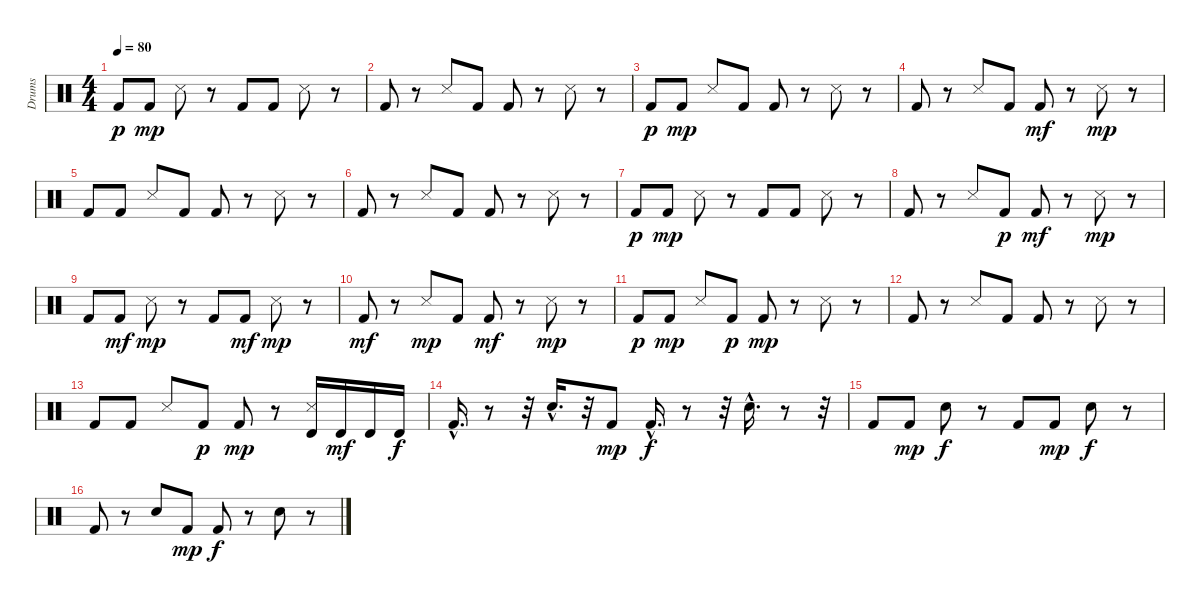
\track ("Drums" "Drums") {instrument percussion}
\staff {score}
\articulation defaults
\ts (4 4)
\tempo 80
\clef neutral
\ks c "Kick (hit) 2".8{dy p} "Kick (hit) 2".8{dy mp} "Snare (side stick) 3".8
r.8 "Kick (hit) 2".8 "Kick (hit) 2".8 "Snare (side stick) 3".8 r.8 |
"Kick (hit) 2".8 r.8 "Snare (side stick) 3".8 "Kick (hit) 2".8 "Kick (hit) 2".8 r.8 "Snare (side stick) 3".8 r.8 |
"Kick (hit) 2".8{dy p} "Kick (hit) 2".8{dy mp} "Snare (side stick) 3".8 "Kick (hit) 2".8 "Kick (hit) 2".8 r.8 "Snare (side stick) 3".8 r.8 |
"Kick (hit) 2".8 r.8 "Snare (side stick) 3".8 "Kick (hit) 2".8 "Kick (hit) 2".8{dy mf} r.8 "Snare (side stick) 3".8{dy mp} r.8 |
"Kick (hit) 2".8 "Kick (hit) 2".8 "Snare (side stick) 3".8 "Kick (hit) 2".8 "Kick (hit) 2".8 r.8 "Snare (side stick) 3".8 r.8 |
"Kick (hit) 2".8 r.8 "Snare (side stick) 3".8 "Kick (hit) 2".8 "Kick (hit) 2".8 r.8 "Snare (side stick) 3".8 r.8 |
"Kick (hit) 2".8{dy p} "Kick (hit) 2".8{dy mp} "Snare (side stick) 3".8 r.8 "Kick (hit) 2".8 "Kick (hit) 2".8 "Snare (side stick) 3".8 r.8 |
"Kick (hit) 2".8 r.8 "Snare (side stick) 3".8 "Kick (hit) 2".8{dy p} "Kick (hit) 2".8{dy mf} r.8 "Snare (side stick) 3".8{dy mp} r.8 |
"Kick (hit) 2".8 "Kick (hit) 2".8{dy mf} "Snare (side stick) 3".8{dy mp} r.8 "Kick (hit) 2".8 "Kick (hit) 2".8{dy mf} "Snare (side stick) 3".8{dy mp} r.8 |
"Kick (hit) 2".8{dy mf} r.8 "Snare (side stick) 3".8{dy mp} "Kick (hit) 2".8 "Kick (hit) 2".8{dy mf} r.8 "Snare (side stick) 3".8{dy mp} r.8 |
"Kick (hit) 2".8{dy p} "Kick (hit) 2".8{dy mp} "Snare (side stick) 3".8 "Kick (hit) 2".8{dy p} "Kick (hit) 2".8{dy mp} r.8 "Snare (side stick) 3".8 r.8 |
"Kick (hit) 2".8 r.8 "Snare (side stick) 3".8 "Kick (hit) 2".8 "Kick (hit) 2".8 r.8 "Snare (side stick) 3".8 r.8 |
"Kick (hit) 2".8 "Kick (hit) 2".8 "Snare (side stick) 3".8 "Kick (hit) 2".8{dy p} "Kick (hit) 2".8{dy mp} r.8 ("Timbale high (hit)" "Snare (side stick) 3").16 "Timbale high (hit)".16{dy mf} "Timbale high (hit)".16 "Timbale high (hit)".16{dy f} |
"Kick (hit) 2"{hac}.16{d} r.8 r.32 "Electric Snare (hit)"{hac}.16{d} r.32 "Kick (hit) 2".8{dy mp} "Kick (hit) 2"{hac}.16{d dy f} r.8 r.32 "Electric Snare (hit)"{hac}.16{d} r.8 r.32 |
"Kick (hit) 2".8 "Kick (hit) 2".8{dy mp} "Electric Snare (hit)".8{dy f} r.8 "Kick (hit) 2".8 "Kick (hit) 2".8{dy mp} "Electric Snare (hit)".8{dy f} r.8 |
"Kick (hit) 2".8 r.8 "Electric Snare (hit)".8 "Kick (hit) 2".8{dy mp} "Kick (hit) 2".8{dy f} r.8 "Electric Snare (hit)".8 r.8
